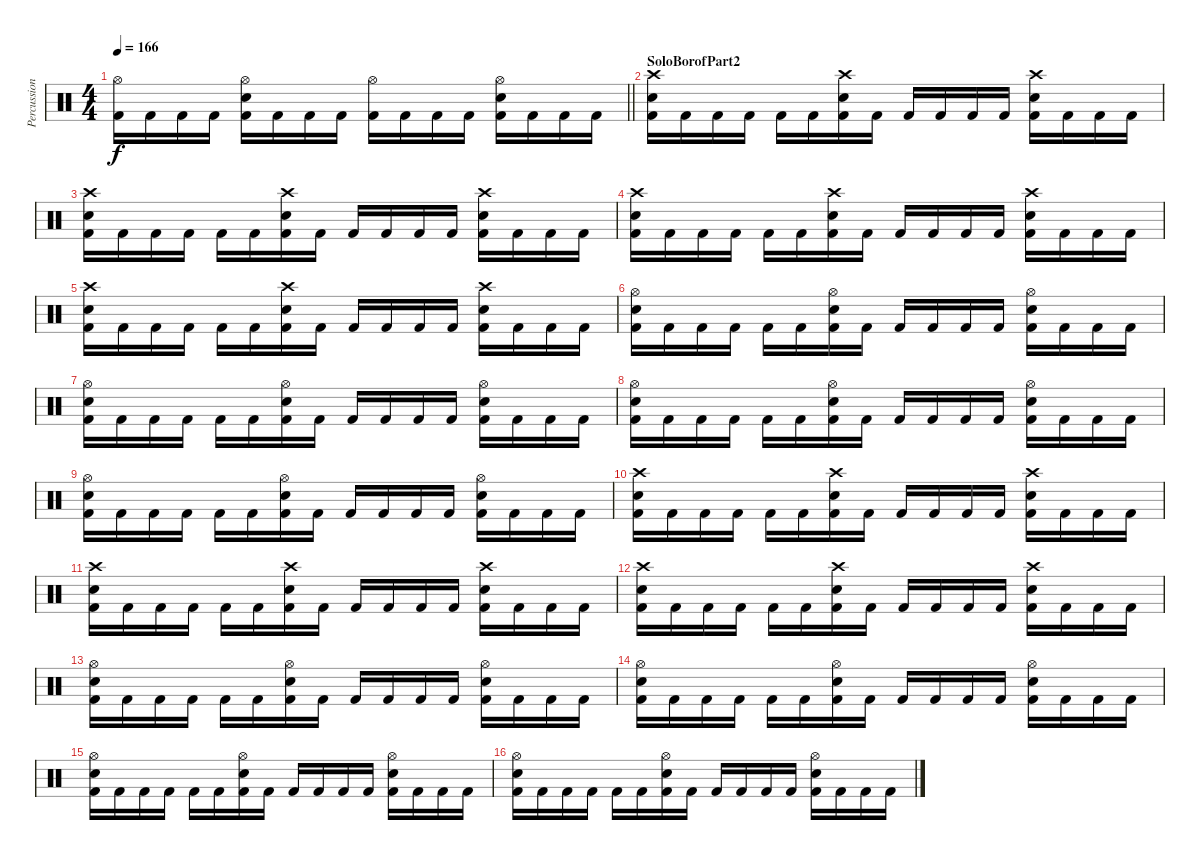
\track ("Percussion" "Percussion") {solo instrument percussion}
\staff {score}
\articulation defaults
\ts (4 4)
\tempo 166
\clef neutral
\barLineRight lightlight
\ks aminor
("Hi-Hat (open)" "Kick (hit) 2").16{dy f} "Kick (hit) 2".16 "Kick (hit) 2".16 "Kick (hit) 2".16 ("Hi-Hat (open)" "Snare (hit) 2" "Kick (hit) 2").16 "Kick (hit) 2".16 "Kick (hit) 2".16 "Kick (hit) 2".16 ("Hi-Hat (open)" "Kick (hit) 2").16 "Kick (hit) 2".16 "Kick (hit) 2".16 "Kick (hit) 2".16 ("Hi-Hat (open)" "Snare (hit) 2" "Kick (hit) 2").16 "Kick (hit) 2".16 "Kick (hit) 2".16 "Kick (hit) 2".16 |
\section ("" "SoloBorofPart2")
("Crash high (hit)" "Snare (hit) 2" "Kick (hit) 2").16 "Kick (hit) 2".16 "Kick (hit) 2".16 "Kick (hit) 2".16 "Kick (hit) 2".16 "Kick (hit) 2".16 ("Crash high (hit)" "Snare (hit) 2" "Kick (hit) 2").16 "Kick (hit) 2".16 "Kick (hit) 2".16 "Kick (hit) 2".16 "Kick (hit) 2".16 "Kick (hit) 2".16 ("Crash high (hit)" "Snare (hit) 2" "Kick (hit) 2").16 "Kick (hit) 2".16 "Kick (hit) 2".16 "Kick (hit) 2".16 |
("Crash high (hit)" "Snare (hit) 2" "Kick (hit) 2").16 "Kick (hit) 2".16 "Kick (hit) 2".16 "Kick (hit) 2".16 "Kick (hit) 2".16 "Kick (hit) 2".16 ("Crash high (hit)" "Snare (hit) 2" "Kick (hit) 2").16 "Kick (hit) 2".16 "Kick (hit) 2".16 "Kick (hit) 2".16 "Kick (hit) 2".16 "Kick (hit) 2".16 ("Crash high (hit)" "Snare (hit) 2" "Kick (hit) 2").16 "Kick (hit) 2".16 "Kick (hit) 2".16 "Kick (hit) 2".16 |
("Crash high (hit)" "Snare (hit) 2" "Kick (hit) 2").16 "Kick (hit) 2".16 "Kick (hit) 2".16 "Kick (hit) 2".16 "Kick (hit) 2".16 "Kick (hit) 2".16 ("Crash high (hit)" "Snare (hit) 2" "Kick (hit) 2").16 "Kick (hit) 2".16 "Kick (hit) 2".16 "Kick (hit) 2".16 "Kick (hit) 2".16 "Kick (hit) 2".16 ("Crash high (hit)" "Snare (hit) 2" "Kick (hit) 2").16 "Kick (hit) 2".16 "Kick (hit) 2".16 "Kick (hit) 2".16 |
("Crash high (hit)" "Snare (hit) 2" "Kick (hit) 2").16 "Kick (hit) 2".16 "Kick (hit) 2".16 "Kick (hit) 2".16 "Kick (hit) 2".16 "Kick (hit) 2".16 ("Crash high (hit)" "Snare (hit) 2" "Kick (hit) 2").16 "Kick (hit) 2".16 "Kick (hit) 2".16 "Kick (hit) 2".16 "Kick (hit) 2".16 "Kick (hit) 2".16 ("Crash high (hit)" "Snare (hit) 2" "Kick (hit) 2").16 "Kick (hit) 2".16 "Kick (hit) 2".16 "Kick (hit) 2".16 |
("Hi-Hat (open)" "Snare (hit) 2" "Kick (hit) 2").16 "Kick (hit) 2".16 "Kick (hit) 2".16 "Kick (hit) 2".16 "Kick (hit) 2".16 "Kick (hit) 2".16 ("Hi-Hat (open)" "Snare (hit) 2" "Kick (hit) 2").16 "Kick (hit) 2".16 "Kick (hit) 2".16 "Kick (hit) 2".16 "Kick (hit) 2".16 "Kick (hit) 2".16 ("Hi-Hat (open)" "Snare (hit) 2" "Kick (hit) 2").16 "Kick (hit) 2".16 "Kick (hit) 2".16 "Kick (hit) 2".16 |
("Hi-Hat (open)" "Snare (hit) 2" "Kick (hit) 2").16 "Kick (hit) 2".16 "Kick (hit) 2".16 "Kick (hit) 2".16 "Kick (hit) 2".16 "Kick (hit) 2".16 ("Hi-Hat (open)" "Snare (hit) 2" "Kick (hit) 2").16 "Kick (hit) 2".16 "Kick (hit) 2".16 "Kick (hit) 2".16 "Kick (hit) 2".16 "Kick (hit) 2".16 ("Hi-Hat (open)" "Snare (hit) 2" "Kick (hit) 2").16 "Kick (hit) 2".16 "Kick (hit) 2".16 "Kick (hit) 2".16 |
("Hi-Hat (open)" "Snare (hit) 2" "Kick (hit) 2").16 "Kick (hit) 2".16 "Kick (hit) 2".16 "Kick (hit) 2".16 "Kick (hit) 2".16 "Kick (hit) 2".16 ("Hi-Hat (open)" "Snare (hit) 2" "Kick (hit) 2").16 "Kick (hit) 2".16 "Kick (hit) 2".16 "Kick (hit) 2".16 "Kick (hit) 2".16 "Kick (hit) 2".16 ("Hi-Hat (open)" "Snare (hit) 2" "Kick (hit) 2").16 "Kick (hit) 2".16 "Kick (hit) 2".16 "Kick (hit) 2".16 |
("Hi-Hat (open)" "Snare (hit) 2" "Kick (hit) 2").16 "Kick (hit) 2".16 "Kick (hit) 2".16 "Kick (hit) 2".16 "Kick (hit) 2".16 "Kick (hit) 2".16 ("Hi-Hat (open)" "Snare (hit) 2" "Kick (hit) 2").16 "Kick (hit) 2".16 "Kick (hit) 2".16 "Kick (hit) 2".16 "Kick (hit) 2".16 "Kick (hit) 2".16 ("Hi-Hat (open)" "Snare (hit) 2" "Kick (hit) 2").16 "Kick (hit) 2".16 "Kick (hit) 2".16 "Kick (hit) 2".16 |
("Crash high (hit)" "Snare (hit) 2" "Kick (hit) 2").16 "Kick (hit) 2".16 "Kick (hit) 2".16 "Kick (hit) 2".16 "Kick (hit) 2".16 "Kick (hit) 2".16 ("Crash high (hit)" "Snare (hit) 2" "Kick (hit) 2").16 "Kick (hit) 2".16 "Kick (hit) 2".16 "Kick (hit) 2".16 "Kick (hit) 2".16 "Kick (hit) 2".16 ("Crash high (hit)" "Snare (hit) 2" "Kick (hit) 2").16 "Kick (hit) 2".16 "Kick (hit) 2".16 "Kick (hit) 2".16 |
("Crash high (hit)" "Snare (hit) 2" "Kick (hit) 2").16 "Kick (hit) 2".16 "Kick (hit) 2".16 "Kick (hit) 2".16 "Kick (hit) 2".16 "Kick (hit) 2".16 ("Crash high (hit)" "Snare (hit) 2" "Kick (hit) 2").16 "Kick (hit) 2".16 "Kick (hit) 2".16 "Kick (hit) 2".16 "Kick (hit) 2".16 "Kick (hit) 2".16 ("Crash high (hit)" "Snare (hit) 2" "Kick (hit) 2").16 "Kick (hit) 2".16 "Kick (hit) 2".16 "Kick (hit) 2".16 |
("Crash high (hit)" "Snare (hit) 2" "Kick (hit) 2").16 "Kick (hit) 2".16 "Kick (hit) 2".16 "Kick (hit) 2".16 "Kick (hit) 2".16 "Kick (hit) 2".16 ("Crash high (hit)" "Snare (hit) 2" "Kick (hit) 2").16 "Kick (hit) 2".16 "Kick (hit) 2".16 "Kick (hit) 2".16 "Kick (hit) 2".16 "Kick (hit) 2".16 ("Crash high (hit)" "Snare (hit) 2" "Kick (hit) 2").16 "Kick (hit) 2".16 "Kick (hit) 2".16 "Kick (hit) 2".16 |
("Hi-Hat (open)" "Snare (hit) 2" "Kick (hit) 2").16 "Kick (hit) 2".16 "Kick (hit) 2".16 "Kick (hit) 2".16 "Kick (hit) 2".16 "Kick (hit) 2".16 ("Hi-Hat (open)" "Snare (hit) 2" "Kick (hit) 2").16 "Kick (hit) 2".16 "Kick (hit) 2".16 "Kick (hit) 2".16 "Kick (hit) 2".16 "Kick (hit) 2".16 ("Hi-Hat (open)" "Snare (hit) 2" "Kick (hit) 2").16 "Kick (hit) 2".16 "Kick (hit) 2".16 "Kick (hit) 2".16 |
("Hi-Hat (open)" "Snare (hit) 2" "Kick (hit) 2").16 "Kick (hit) 2".16 "Kick (hit) 2".16 "Kick (hit) 2".16 "Kick (hit) 2".16 "Kick (hit) 2".16 ("Hi-Hat (open)" "Snare (hit) 2" "Kick (hit) 2").16 "Kick (hit) 2".16 "Kick (hit) 2".16 "Kick (hit) 2".16 "Kick (hit) 2".16 "Kick (hit) 2".16 ("Hi-Hat (open)" "Snare (hit) 2" "Kick (hit) 2").16 "Kick (hit) 2".16 "Kick (hit) 2".16 "Kick (hit) 2".16 |
("Hi-Hat (open)" "Snare (hit) 2" "Kick (hit) 2").16 "Kick (hit) 2".16 "Kick (hit) 2".16 "Kick (hit) 2".16 "Kick (hit) 2".16 "Kick (hit) 2".16 ("Hi-Hat (open)" "Snare (hit) 2" "Kick (hit) 2").16 "Kick (hit) 2".16 "Kick (hit) 2".16 "Kick (hit) 2".16 "Kick (hit) 2".16 "Kick (hit) 2".16 ("Hi-Hat (open)" "Snare (hit) 2" "Kick (hit) 2").16 "Kick (hit) 2".16 "Kick (hit) 2".16 "Kick (hit) 2".16 |
("Hi-Hat (open)" "Snare (hit) 2" "Kick (hit) 2").16 "Kick (hit) 2".16 "Kick (hit) 2".16 "Kick (hit) 2".16 "Kick (hit) 2".16 "Kick (hit) 2".16 ("Hi-Hat (open)" "Snare (hit) 2" "Kick (hit) 2").16 "Kick (hit) 2".16 "Kick (hit) 2".16 "Kick (hit) 2".16 "Kick (hit) 2".16 "Kick (hit) 2".16 ("Hi-Hat (open)" "Snare (hit) 2" "Kick (hit) 2").16 "Kick (hit) 2".16 "Kick (hit) 2".16 "Kick (hit) 2".16
